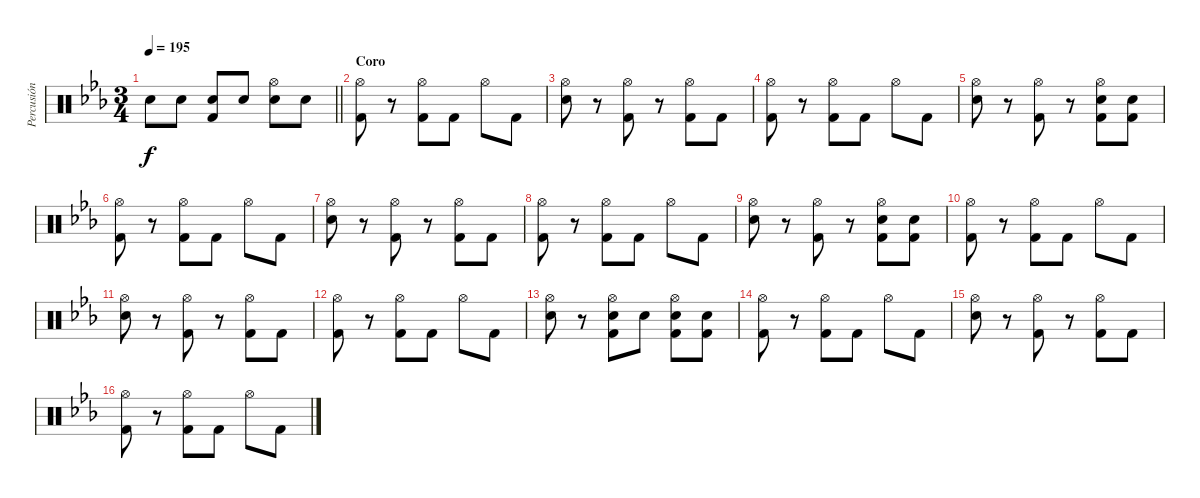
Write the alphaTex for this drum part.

\track ("Percusión" "Percusión") {instrument percussion}
\staff {score}
\articulation defaults
\ts (3 4)
\tempo 195
\clef neutral
\barLineRight lightlight
\ks eb "Snare (hit) 2".8{dy f} "Snare (hit) 2".8
("Snare (hit) 2" "Kick (hit) 2").8 "Snare (hit) 2".8 ("Hi-Hat (open)" "Snare (hit) 2").8 "Snare (hit) 2".8 |
\section ("" "Coro")
("Hi-Hat (open)" "Kick (hit) 2").8 r.8 ("Hi-Hat (open)" "Kick (hit) 2").8 "Kick (hit) 2".8 "Hi-Hat (open)".8 "Kick (hit) 2".8 |
("Hi-Hat (open)" "Snare (hit) 2").8 r.8 ("Hi-Hat (open)" "Kick (hit) 2").8 r.8 ("Hi-Hat (open)" "Kick (hit) 2").8 "Kick (hit) 2".8 |
("Hi-Hat (open)" "Kick (hit) 2").8 r.8 ("Hi-Hat (open)" "Kick (hit) 2").8 "Kick (hit) 2".8 "Hi-Hat (open)".8 "Kick (hit) 2".8 |
("Hi-Hat (open)" "Snare (hit) 2").8 r.8 ("Hi-Hat (open)" "Kick (hit) 2").8 r.8 ("Hi-Hat (open)" "Snare (hit) 2" "Kick (hit) 2").8 ("Snare (hit) 2" "Kick (hit) 2").8 |
("Hi-Hat (open)" "Kick (hit) 2").8 r.8 ("Hi-Hat (open)" "Kick (hit) 2").8 "Kick (hit) 2".8 "Hi-Hat (open)".8 "Kick (hit) 2".8 |
("Hi-Hat (open)" "Snare (hit) 2").8 r.8 ("Hi-Hat (open)" "Kick (hit) 2").8 r.8 ("Hi-Hat (open)" "Kick (hit) 2").8 "Kick (hit) 2".8 |
("Hi-Hat (open)" "Kick (hit) 2").8 r.8 ("Hi-Hat (open)" "Kick (hit) 2").8 "Kick (hit) 2".8 "Hi-Hat (open)".8 "Kick (hit) 2".8 |
("Hi-Hat (open)" "Snare (hit) 2").8 r.8 ("Hi-Hat (open)" "Kick (hit) 2").8 r.8 ("Hi-Hat (open)" "Snare (hit) 2" "Kick (hit) 2").8 ("Snare (hit) 2" "Kick (hit) 2").8 |
("Hi-Hat (open)" "Kick (hit) 2").8 r.8 ("Hi-Hat (open)" "Kick (hit) 2").8 "Kick (hit) 2".8 "Hi-Hat (open)".8 "Kick (hit) 2".8 |
("Hi-Hat (open)" "Snare (hit) 2").8 r.8 ("Hi-Hat (open)" "Kick (hit) 2").8 r.8 ("Hi-Hat (open)" "Kick (hit) 2").8 "Kick (hit) 2".8 |
("Hi-Hat (open)" "Kick (hit) 2").8 r.8 ("Hi-Hat (open)" "Kick (hit) 2").8 "Kick (hit) 2".8 "Hi-Hat (open)".8 "Kick (hit) 2".8 |
("Hi-Hat (open)" "Snare (hit) 2").8 r.8 ("Hi-Hat (open)" "Snare (hit) 2" "Kick (hit) 2").8 "Snare (hit) 2".8 ("Hi-Hat (open)" "Snare (hit) 2" "Kick (hit) 2").8 ("Snare (hit) 2" "Kick (hit) 2").8 |
("Hi-Hat (open)" "Kick (hit) 2").8 r.8 ("Hi-Hat (open)" "Kick (hit) 2").8 "Kick (hit) 2".8 "Hi-Hat (open)".8 "Kick (hit) 2".8 |
("Hi-Hat (open)" "Snare (hit) 2").8 r.8 ("Hi-Hat (open)" "Kick (hit) 2").8 r.8 ("Hi-Hat (open)" "Kick (hit) 2").8 "Kick (hit) 2".8 |
("Hi-Hat (open)" "Kick (hit) 2").8 r.8 ("Hi-Hat (open)" "Kick (hit) 2").8 "Kick (hit) 2".8 "Hi-Hat (open)".8 "Kick (hit) 2".8
